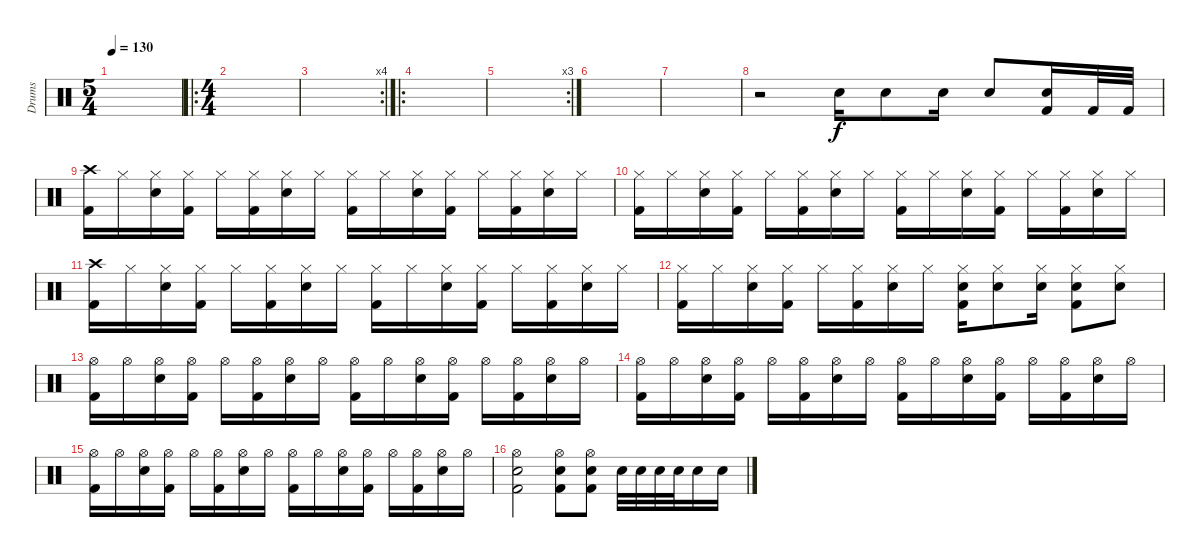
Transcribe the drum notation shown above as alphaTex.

\track ("Drums" "Drums") {instrument percussion}
\staff {score}
\articulation defaults
\ts (5 4)
\tempo 130
\clef neutral
\ks c
|
\ro
\ts (4 4)
|
\rc 4
|
\ro
|
\rc 3
|
|
|
r.2 "Electric Snare (hit)".16 "Electric Snare (hit)".8 "Electric Snare (hit)".16 "Electric Snare (hit)".8 ("Electric Snare (hit)" "Kick (hit) 2").16 "Kick (hit) 2".32 "Kick (hit) 2".32 |
("Crash high (hit)" "Kick (hit) 2").16 "Hi-Hat (closed)".16 ("Hi-Hat (closed)" "Electric Snare (hit)").16 ("Hi-Hat (closed)" "Kick (hit) 2").16 "Hi-Hat (closed)".16 ("Hi-Hat (closed)" "Kick (hit) 2").16 ("Hi-Hat (closed)" "Electric Snare (hit)").16 "Hi-Hat (closed)".16 ("Hi-Hat (closed)" "Kick (hit) 2").16 "Hi-Hat (closed)".16 ("Hi-Hat (closed)" "Electric Snare (hit)").16 ("Hi-Hat (closed)" "Kick (hit) 2").16 "Hi-Hat (closed)".16 ("Hi-Hat (closed)" "Kick (hit) 2").16 ("Hi-Hat (closed)" "Electric Snare (hit)").16 "Hi-Hat (closed)".16 |
("Hi-Hat (closed)" "Kick (hit) 2").16 "Hi-Hat (closed)".16 ("Hi-Hat (closed)" "Electric Snare (hit)").16 ("Hi-Hat (closed)" "Kick (hit) 2").16 "Hi-Hat (closed)".16 ("Hi-Hat (closed)" "Kick (hit) 2").16 ("Hi-Hat (closed)" "Electric Snare (hit)").16 "Hi-Hat (closed)".16 ("Hi-Hat (closed)" "Kick (hit) 2").16 "Hi-Hat (closed)".16 ("Hi-Hat (closed)" "Electric Snare (hit)").16 ("Hi-Hat (closed)" "Kick (hit) 2").16 "Hi-Hat (closed)".16 ("Hi-Hat (closed)" "Kick (hit) 2").16 ("Hi-Hat (closed)" "Electric Snare (hit)").16 "Hi-Hat (closed)".16 |
("Crash high (hit)" "Kick (hit) 2").16 "Hi-Hat (closed)".16 ("Hi-Hat (closed)" "Electric Snare (hit)").16 ("Hi-Hat (closed)" "Kick (hit) 2").16 "Hi-Hat (closed)".16 ("Hi-Hat (closed)" "Kick (hit) 2").16 ("Hi-Hat (closed)" "Electric Snare (hit)").16 "Hi-Hat (closed)".16 ("Hi-Hat (closed)" "Kick (hit) 2").16 "Hi-Hat (closed)".16 ("Hi-Hat (closed)" "Electric Snare (hit)").16 ("Hi-Hat (closed)" "Kick (hit) 2").16 "Hi-Hat (closed)".16 ("Hi-Hat (closed)" "Kick (hit) 2").16 ("Hi-Hat (closed)" "Electric Snare (hit)").16 "Hi-Hat (closed)".16 |
("Hi-Hat (closed)" "Kick (hit) 2").16 "Hi-Hat (closed)".16 ("Hi-Hat (closed)" "Electric Snare (hit)").16 ("Hi-Hat (closed)" "Kick (hit) 2").16 "Hi-Hat (closed)".16 ("Hi-Hat (closed)" "Kick (hit) 2").16 ("Hi-Hat (closed)" "Electric Snare (hit)").16 "Hi-Hat (closed)".16 ("Hi-Hat (closed)" "Electric Snare (hit)" "Kick (hit) 2").16 ("Hi-Hat (closed)" "Electric Snare (hit)").8 ("Hi-Hat (closed)" "Electric Snare (hit)").16 ("Hi-Hat (closed)" "Electric Snare (hit)" "Kick (hit) 2").8 ("Hi-Hat (closed)" "Electric Snare (hit)").8 |
("Hi-Hat (open)" "Kick (hit) 2").16 "Hi-Hat (open)".16 ("Hi-Hat (open)" "Electric Snare (hit)").16 ("Hi-Hat (open)" "Kick (hit) 2").16 "Hi-Hat (open)".16 ("Hi-Hat (open)" "Kick (hit) 2").16 ("Hi-Hat (open)" "Electric Snare (hit)").16 "Hi-Hat (open)".16 ("Hi-Hat (open)" "Kick (hit) 2").16 "Hi-Hat (open)".16 ("Hi-Hat (open)" "Electric Snare (hit)").16 ("Hi-Hat (open)" "Kick (hit) 2").16 "Hi-Hat (open)".16 ("Hi-Hat (open)" "Kick (hit) 2").16 ("Hi-Hat (open)" "Electric Snare (hit)").16 "Hi-Hat (open)".16 |
("Hi-Hat (open)" "Kick (hit) 2").16 "Hi-Hat (open)".16 ("Hi-Hat (open)" "Electric Snare (hit)").16 ("Hi-Hat (open)" "Kick (hit) 2").16 "Hi-Hat (open)".16 ("Hi-Hat (open)" "Kick (hit) 2").16 ("Hi-Hat (open)" "Electric Snare (hit)").16 "Hi-Hat (open)".16 ("Hi-Hat (open)" "Kick (hit) 2").16 "Hi-Hat (open)".16 ("Hi-Hat (open)" "Electric Snare (hit)").16 ("Hi-Hat (open)" "Kick (hit) 2").16 "Hi-Hat (open)".16 ("Hi-Hat (open)" "Kick (hit) 2").16 ("Hi-Hat (open)" "Electric Snare (hit)").16 "Hi-Hat (open)".16 |
("Hi-Hat (open)" "Kick (hit) 2").16 "Hi-Hat (open)".16 ("Hi-Hat (open)" "Electric Snare (hit)").16 ("Hi-Hat (open)" "Kick (hit) 2").16 "Hi-Hat (open)".16 ("Hi-Hat (open)" "Kick (hit) 2").16 ("Hi-Hat (open)" "Electric Snare (hit)").16 "Hi-Hat (open)".16 ("Hi-Hat (open)" "Kick (hit) 2").16 "Hi-Hat (open)".16 ("Hi-Hat (open)" "Electric Snare (hit)").16 ("Hi-Hat (open)" "Kick (hit) 2").16 "Hi-Hat (open)".16 ("Hi-Hat (open)" "Kick (hit) 2").16 ("Hi-Hat (open)" "Electric Snare (hit)").16 "Hi-Hat (open)".16 |
("Hi-Hat (open)" "Electric Snare (hit)" "Kick (hit) 2").2 ("Hi-Hat (open)" "Electric Snare (hit)" "Kick (hit) 2").8 ("Hi-Hat (open)" "Electric Snare (hit)" "Kick (hit) 2").8 "Electric Snare (hit)".32 "Electric Snare (hit)".32 "Electric Snare (hit)".32 "Electric Snare (hit)".32 "Electric Snare (hit)".16 "Electric Snare (hit)".16
